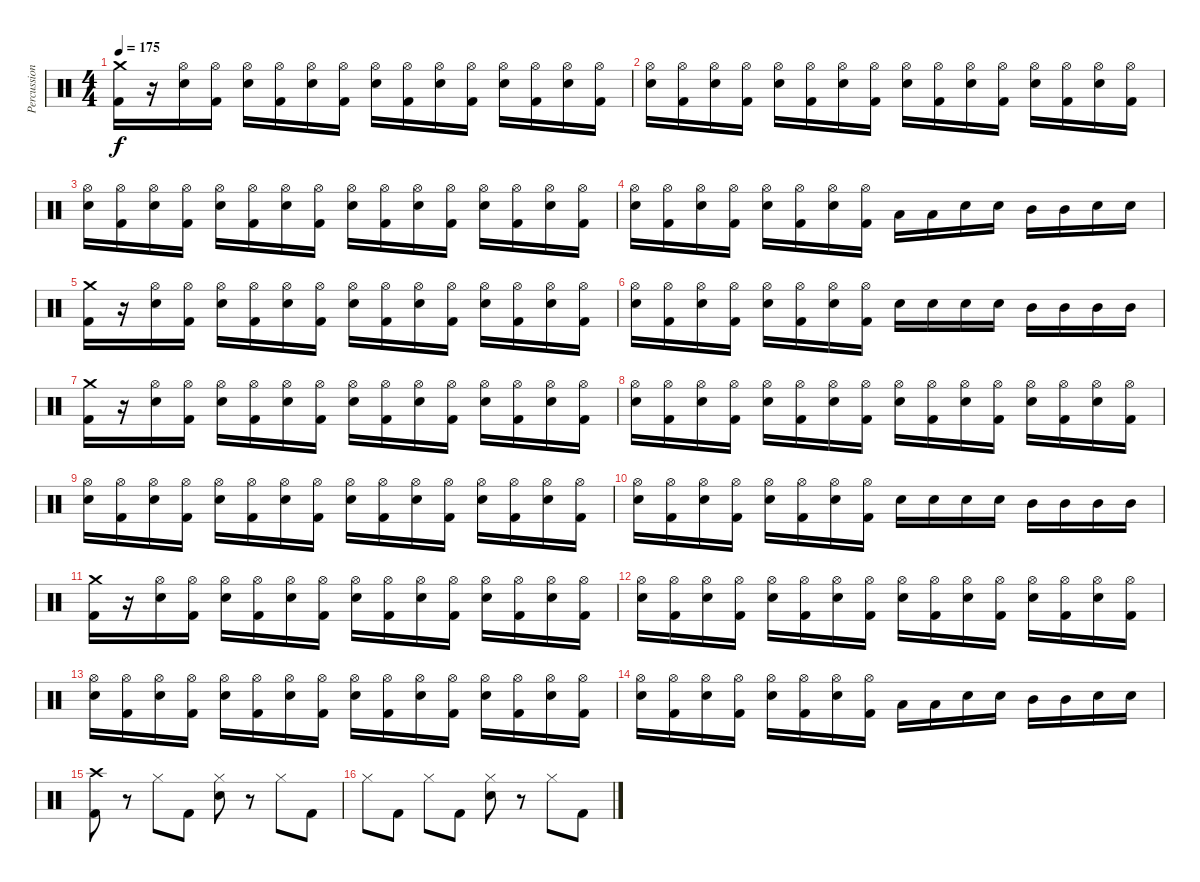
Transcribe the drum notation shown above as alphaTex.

\track ("Percussion" "Percussion") {instrument percussion}
\staff {score}
\articulation defaults
\ts (4 4)
\tempo 175
\clef neutral
\ks c
("Kick (hit) 2" "Crash medium (hit)").16{dy f} r.16 ("Electric Snare (hit)" "Hi-Hat (open)").16 ("Kick (hit) 2" "Hi-Hat (open)").16 ("Electric Snare (hit)" "Hi-Hat (open)").16 ("Kick (hit) 2" "Hi-Hat (open)").16 ("Electric Snare (hit)" "Hi-Hat (open)").16 ("Kick (hit) 2" "Hi-Hat (open)").16 ("Electric Snare (hit)" "Hi-Hat (open)").16 ("Kick (hit) 2" "Hi-Hat (open)").16 ("Electric Snare (hit)" "Hi-Hat (open)").16 ("Kick (hit) 2" "Hi-Hat (open)").16 ("Electric Snare (hit)" "Hi-Hat (open)").16 ("Kick (hit) 2" "Hi-Hat (open)").16 ("Electric Snare (hit)" "Hi-Hat (open)").16 ("Kick (hit) 2" "Hi-Hat (open)").16 |
("Electric Snare (hit)" "Hi-Hat (open)").16 ("Kick (hit) 2" "Hi-Hat (open)").16 ("Electric Snare (hit)" "Hi-Hat (open)").16 ("Kick (hit) 2" "Hi-Hat (open)").16 ("Electric Snare (hit)" "Hi-Hat (open)").16 ("Kick (hit) 2" "Hi-Hat (open)").16 ("Electric Snare (hit)" "Hi-Hat (open)").16 ("Kick (hit) 2" "Hi-Hat (open)").16 ("Electric Snare (hit)" "Hi-Hat (open)").16 ("Kick (hit) 2" "Hi-Hat (open)").16 ("Electric Snare (hit)" "Hi-Hat (open)").16 ("Kick (hit) 2" "Hi-Hat (open)").16 ("Electric Snare (hit)" "Hi-Hat (open)").16 ("Kick (hit) 2" "Hi-Hat (open)").16 ("Electric Snare (hit)" "Hi-Hat (open)").16 ("Kick (hit) 2" "Hi-Hat (open)").16 |
("Electric Snare (hit)" "Hi-Hat (open)").16 ("Kick (hit) 2" "Hi-Hat (open)").16 ("Electric Snare (hit)" "Hi-Hat (open)").16 ("Kick (hit) 2" "Hi-Hat (open)").16 ("Electric Snare (hit)" "Hi-Hat (open)").16 ("Kick (hit) 2" "Hi-Hat (open)").16 ("Electric Snare (hit)" "Hi-Hat (open)").16 ("Kick (hit) 2" "Hi-Hat (open)").16 ("Electric Snare (hit)" "Hi-Hat (open)").16 ("Kick (hit) 2" "Hi-Hat (open)").16 ("Electric Snare (hit)" "Hi-Hat (open)").16 ("Kick (hit) 2" "Hi-Hat (open)").16 ("Electric Snare (hit)" "Hi-Hat (open)").16 ("Kick (hit) 2" "Hi-Hat (open)").16 ("Electric Snare (hit)" "Hi-Hat (open)").16 ("Kick (hit) 2" "Hi-Hat (open)").16 |
("Electric Snare (hit)" "Hi-Hat (open)").16 ("Kick (hit) 2" "Hi-Hat (open)").16 ("Electric Snare (hit)" "Hi-Hat (open)").16 ("Kick (hit) 2" "Hi-Hat (open)").16 ("Electric Snare (hit)" "Hi-Hat (open)").16 ("Kick (hit) 2" "Hi-Hat (open)").16 ("Electric Snare (hit)" "Hi-Hat (open)").16 ("Kick (hit) 2" "Hi-Hat (open)").16 "Low Tom (hit)".16 "Low Tom (hit)".16 "Electric Snare (hit)".16 "Electric Snare (hit)".16 "Mid Tom (hit)".16 "Mid Tom (hit)".16 "Electric Snare (hit)".16 "Electric Snare (hit)".16 |
("Kick (hit) 2" "Crash medium (hit)").16 r.16 ("Electric Snare (hit)" "Hi-Hat (open)").16 ("Kick (hit) 2" "Hi-Hat (open)").16 ("Electric Snare (hit)" "Hi-Hat (open)").16 ("Kick (hit) 2" "Hi-Hat (open)").16 ("Electric Snare (hit)" "Hi-Hat (open)").16 ("Kick (hit) 2" "Hi-Hat (open)").16 ("Electric Snare (hit)" "Hi-Hat (open)").16 ("Kick (hit) 2" "Hi-Hat (open)").16 ("Electric Snare (hit)" "Hi-Hat (open)").16 ("Kick (hit) 2" "Hi-Hat (open)").16 ("Electric Snare (hit)" "Hi-Hat (open)").16 ("Kick (hit) 2" "Hi-Hat (open)").16 ("Electric Snare (hit)" "Hi-Hat (open)").16 ("Kick (hit) 2" "Hi-Hat (open)").16 |
("Electric Snare (hit)" "Hi-Hat (open)").16 ("Kick (hit) 2" "Hi-Hat (open)").16 ("Electric Snare (hit)" "Hi-Hat (open)").16 ("Kick (hit) 2" "Hi-Hat (open)").16 ("Electric Snare (hit)" "Hi-Hat (open)").16 ("Kick (hit) 2" "Hi-Hat (open)").16 ("Electric Snare (hit)" "Hi-Hat (open)").16 ("Kick (hit) 2" "Hi-Hat (open)").16 "Electric Snare (hit)".16 "Electric Snare (hit)".16 "Electric Snare (hit)".16 "Electric Snare (hit)".16 "Mid Tom (hit)".16 "Mid Tom (hit)".16 "Mid Tom (hit)".16 "Mid Tom (hit)".16 |
("Kick (hit) 2" "Crash medium (hit)").16 r.16 ("Electric Snare (hit)" "Hi-Hat (open)").16 ("Kick (hit) 2" "Hi-Hat (open)").16 ("Electric Snare (hit)" "Hi-Hat (open)").16 ("Kick (hit) 2" "Hi-Hat (open)").16 ("Electric Snare (hit)" "Hi-Hat (open)").16 ("Kick (hit) 2" "Hi-Hat (open)").16 ("Electric Snare (hit)" "Hi-Hat (open)").16 ("Kick (hit) 2" "Hi-Hat (open)").16 ("Electric Snare (hit)" "Hi-Hat (open)").16 ("Kick (hit) 2" "Hi-Hat (open)").16 ("Electric Snare (hit)" "Hi-Hat (open)").16 ("Kick (hit) 2" "Hi-Hat (open)").16 ("Electric Snare (hit)" "Hi-Hat (open)").16 ("Kick (hit) 2" "Hi-Hat (open)").16 |
("Electric Snare (hit)" "Hi-Hat (open)").16 ("Kick (hit) 2" "Hi-Hat (open)").16 ("Electric Snare (hit)" "Hi-Hat (open)").16 ("Kick (hit) 2" "Hi-Hat (open)").16 ("Electric Snare (hit)" "Hi-Hat (open)").16 ("Kick (hit) 2" "Hi-Hat (open)").16 ("Electric Snare (hit)" "Hi-Hat (open)").16 ("Kick (hit) 2" "Hi-Hat (open)").16 ("Electric Snare (hit)" "Hi-Hat (open)").16 ("Kick (hit) 2" "Hi-Hat (open)").16 ("Electric Snare (hit)" "Hi-Hat (open)").16 ("Kick (hit) 2" "Hi-Hat (open)").16 ("Electric Snare (hit)" "Hi-Hat (open)").16 ("Kick (hit) 2" "Hi-Hat (open)").16 ("Electric Snare (hit)" "Hi-Hat (open)").16 ("Kick (hit) 2" "Hi-Hat (open)").16 |
("Electric Snare (hit)" "Hi-Hat (open)").16 ("Kick (hit) 2" "Hi-Hat (open)").16 ("Electric Snare (hit)" "Hi-Hat (open)").16 ("Kick (hit) 2" "Hi-Hat (open)").16 ("Electric Snare (hit)" "Hi-Hat (open)").16 ("Kick (hit) 2" "Hi-Hat (open)").16 ("Electric Snare (hit)" "Hi-Hat (open)").16 ("Kick (hit) 2" "Hi-Hat (open)").16 ("Electric Snare (hit)" "Hi-Hat (open)").16 ("Kick (hit) 2" "Hi-Hat (open)").16 ("Electric Snare (hit)" "Hi-Hat (open)").16 ("Kick (hit) 2" "Hi-Hat (open)").16 ("Electric Snare (hit)" "Hi-Hat (open)").16 ("Kick (hit) 2" "Hi-Hat (open)").16 ("Electric Snare (hit)" "Hi-Hat (open)").16 ("Kick (hit) 2" "Hi-Hat (open)").16 |
("Electric Snare (hit)" "Hi-Hat (open)").16 ("Kick (hit) 2" "Hi-Hat (open)").16 ("Electric Snare (hit)" "Hi-Hat (open)").16 ("Kick (hit) 2" "Hi-Hat (open)").16 ("Electric Snare (hit)" "Hi-Hat (open)").16 ("Kick (hit) 2" "Hi-Hat (open)").16 ("Electric Snare (hit)" "Hi-Hat (open)").16 ("Kick (hit) 2" "Hi-Hat (open)").16 "Electric Snare (hit)".16 "Electric Snare (hit)".16 "Electric Snare (hit)".16 "Electric Snare (hit)".16 "Mid Tom (hit)".16 "Mid Tom (hit)".16 "Mid Tom (hit)".16 "Mid Tom (hit)".16 |
("Kick (hit) 2" "Crash medium (hit)").16 r.16 ("Electric Snare (hit)" "Hi-Hat (open)").16 ("Kick (hit) 2" "Hi-Hat (open)").16 ("Electric Snare (hit)" "Hi-Hat (open)").16 ("Kick (hit) 2" "Hi-Hat (open)").16 ("Electric Snare (hit)" "Hi-Hat (open)").16 ("Kick (hit) 2" "Hi-Hat (open)").16 ("Electric Snare (hit)" "Hi-Hat (open)").16 ("Kick (hit) 2" "Hi-Hat (open)").16 ("Electric Snare (hit)" "Hi-Hat (open)").16 ("Kick (hit) 2" "Hi-Hat (open)").16 ("Electric Snare (hit)" "Hi-Hat (open)").16 ("Kick (hit) 2" "Hi-Hat (open)").16 ("Electric Snare (hit)" "Hi-Hat (open)").16 ("Kick (hit) 2" "Hi-Hat (open)").16 |
("Electric Snare (hit)" "Hi-Hat (open)").16 ("Kick (hit) 2" "Hi-Hat (open)").16 ("Electric Snare (hit)" "Hi-Hat (open)").16 ("Kick (hit) 2" "Hi-Hat (open)").16 ("Electric Snare (hit)" "Hi-Hat (open)").16 ("Kick (hit) 2" "Hi-Hat (open)").16 ("Electric Snare (hit)" "Hi-Hat (open)").16 ("Kick (hit) 2" "Hi-Hat (open)").16 ("Electric Snare (hit)" "Hi-Hat (open)").16 ("Kick (hit) 2" "Hi-Hat (open)").16 ("Electric Snare (hit)" "Hi-Hat (open)").16 ("Kick (hit) 2" "Hi-Hat (open)").16 ("Electric Snare (hit)" "Hi-Hat (open)").16 ("Kick (hit) 2" "Hi-Hat (open)").16 ("Electric Snare (hit)" "Hi-Hat (open)").16 ("Kick (hit) 2" "Hi-Hat (open)").16 |
("Electric Snare (hit)" "Hi-Hat (open)").16 ("Kick (hit) 2" "Hi-Hat (open)").16 ("Electric Snare (hit)" "Hi-Hat (open)").16 ("Kick (hit) 2" "Hi-Hat (open)").16 ("Electric Snare (hit)" "Hi-Hat (open)").16 ("Kick (hit) 2" "Hi-Hat (open)").16 ("Electric Snare (hit)" "Hi-Hat (open)").16 ("Kick (hit) 2" "Hi-Hat (open)").16 ("Electric Snare (hit)" "Hi-Hat (open)").16 ("Kick (hit) 2" "Hi-Hat (open)").16 ("Electric Snare (hit)" "Hi-Hat (open)").16 ("Kick (hit) 2" "Hi-Hat (open)").16 ("Electric Snare (hit)" "Hi-Hat (open)").16 ("Kick (hit) 2" "Hi-Hat (open)").16 ("Electric Snare (hit)" "Hi-Hat (open)").16 ("Kick (hit) 2" "Hi-Hat (open)").16 |
("Electric Snare (hit)" "Hi-Hat (open)").16 ("Kick (hit) 2" "Hi-Hat (open)").16 ("Electric Snare (hit)" "Hi-Hat (open)").16 ("Kick (hit) 2" "Hi-Hat (open)").16 ("Electric Snare (hit)" "Hi-Hat (open)").16 ("Kick (hit) 2" "Hi-Hat (open)").16 ("Electric Snare (hit)" "Hi-Hat (open)").16 ("Kick (hit) 2" "Hi-Hat (open)").16 "Low Tom (hit)".16 "Low Tom (hit)".16 "Electric Snare (hit)".16 "Electric Snare (hit)".16 "Mid Tom (hit)".16 "Mid Tom (hit)".16 "Electric Snare (hit)".16 "Electric Snare (hit)".16 |
("Kick (hit) 2" "Crash high (hit)").8 r.8 "Hi-Hat (closed)".8 "Kick (hit) 2".8 ("Electric Snare (hit)" "Hi-Hat (closed)").8 r.8 "Hi-Hat (closed)".8 "Kick (hit) 2".8 |
"Hi-Hat (closed)".8 "Kick (hit) 2".8 "Hi-Hat (closed)".8 "Kick (hit) 2".8 ("Electric Snare (hit)" "Hi-Hat (closed)").8 r.8 "Hi-Hat (closed)".8 "Kick (hit) 2".8
